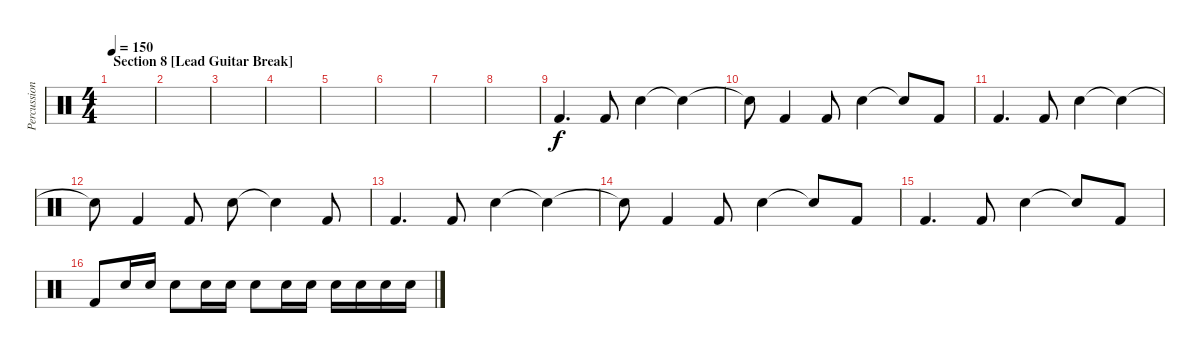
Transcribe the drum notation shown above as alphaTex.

\track ("Percussion" "Percussion") {instrument percussion}
\staff {score}
\articulation defaults
\ts (4 4)
\section ("" "Section 8 [Lead Guitar Break]")
\tempo 150
\clef neutral
\ks c
|
|
|
|
|
|
|
|
"Kick (hit) 2".4{d} "Kick (hit) 2".8 "Electric Snare (hit)".4 "Snare (hit)"{t}.4 |
"Snare (hit)"{t}.8 "Kick (hit) 2".4 "Kick (hit) 2".8 "Electric Snare (hit)".4 "Snare (hit)"{t}.8 "Kick (hit) 2".8 |
"Kick (hit) 2".4{d} "Kick (hit) 2".8 "Electric Snare (hit)".4 "Snare (hit)"{t}.4 |
"Snare (hit)"{t}.8 "Kick (hit) 2".4 "Kick (hit) 2".8 "Electric Snare (hit)".8 "Snare (hit)"{t}.4 "Kick (hit) 2".8 |
"Kick (hit) 2".4{d} "Kick (hit) 2".8 "Electric Snare (hit)".4 "Snare (hit)"{t}.4 |
"Snare (hit)"{t}.8 "Kick (hit) 2".4 "Kick (hit) 2".8 "Electric Snare (hit)".4 "Snare (hit)"{t}.8 "Kick (hit) 2".8 |
"Kick (hit) 2".4{d} "Kick (hit) 2".8 "Electric Snare (hit)".4 "Snare (hit)"{t}.8 "Kick (hit) 2".8 |
"Kick (hit) 2".8 "Electric Snare (hit)".16 "Electric Snare (hit)".16 "Electric Snare (hit)".8 "Electric Snare (hit)".16 "Electric Snare (hit)".16 "Electric Snare (hit)".8 "Electric Snare (hit)".16 "Electric Snare (hit)".16 "Electric Snare (hit)".16 "Electric Snare (hit)".16 "Electric Snare (hit)".16 "Electric Snare (hit)".16
